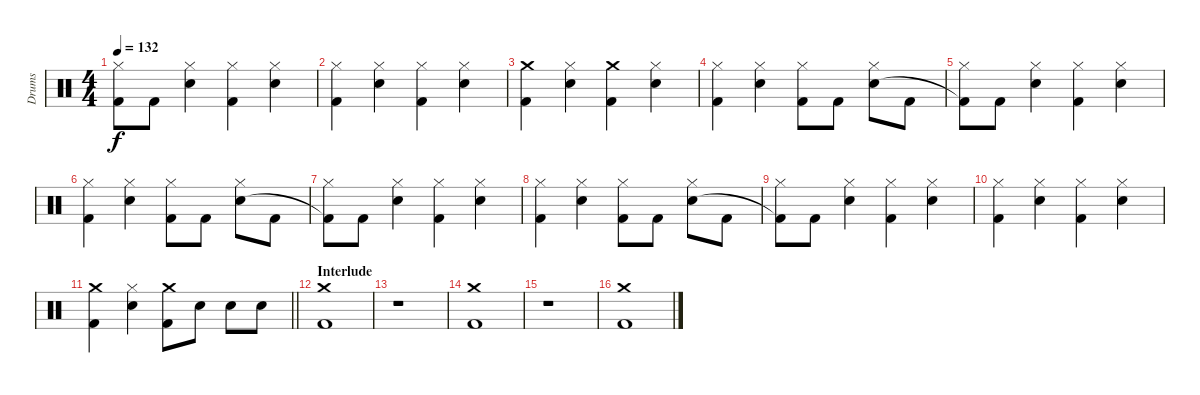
\track ("Drums" "Drums") {instrument percussion}
\staff {score}
\articulation defaults
\ts (4 4)
\tempo 132
\clef neutral
\ks c
("Hi-Hat (closed)" "Kick (hit) 2"{t}).8{dy f} "Kick (hit) 2".8 ("Hi-Hat (closed)" "Snare (hit) 2").4 ("Hi-Hat (closed)" "Kick (hit) 2").4 ("Hi-Hat (closed)" "Snare (hit) 2").4 |
("Hi-Hat (closed)" "Kick (hit) 2").4 ("Hi-Hat (closed)" "Snare (hit) 2").4 ("Hi-Hat (closed)" "Kick (hit) 2").4 ("Hi-Hat (closed)" "Snare (hit) 2").4 |
("Crash medium (hit)" "Kick (hit) 2").4 ("Hi-Hat (closed)" "Snare (hit) 2").4 ("Crash medium (hit)" "Kick (hit) 2").4 ("Hi-Hat (closed)" "Snare (hit) 2").4 |
("Hi-Hat (closed)" "Kick (hit) 2").4 ("Hi-Hat (closed)" "Snare (hit) 2").4 ("Hi-Hat (closed)" "Kick (hit) 2").8 "Kick (hit) 2".8 ("Hi-Hat (closed)" "Snare (hit) 2").8 "Kick (hit) 2".8 |
("Hi-Hat (closed)" "Kick (hit) 2"{t}).8 "Kick (hit) 2".8 ("Hi-Hat (closed)" "Snare (hit) 2").4 ("Hi-Hat (closed)" "Kick (hit) 2").4 ("Hi-Hat (closed)" "Snare (hit) 2").4 |
("Hi-Hat (closed)" "Kick (hit) 2").4 ("Hi-Hat (closed)" "Snare (hit) 2").4 ("Hi-Hat (closed)" "Kick (hit) 2").8 "Kick (hit) 2".8 ("Hi-Hat (closed)" "Snare (hit) 2").8 "Kick (hit) 2".8 |
("Hi-Hat (closed)" "Kick (hit) 2"{t}).8 "Kick (hit) 2".8 ("Hi-Hat (closed)" "Snare (hit) 2").4 ("Hi-Hat (closed)" "Kick (hit) 2").4 ("Hi-Hat (closed)" "Snare (hit) 2").4 |
("Hi-Hat (closed)" "Kick (hit) 2").4 ("Hi-Hat (closed)" "Snare (hit) 2").4 ("Hi-Hat (closed)" "Kick (hit) 2").8 "Kick (hit) 2".8 ("Hi-Hat (closed)" "Snare (hit) 2").8 "Kick (hit) 2".8 |
("Hi-Hat (closed)" "Kick (hit) 2"{t}).8 "Kick (hit) 2".8 ("Hi-Hat (closed)" "Snare (hit) 2").4 ("Hi-Hat (closed)" "Kick (hit) 2").4 ("Hi-Hat (closed)" "Snare (hit) 2").4 |
("Hi-Hat (closed)" "Kick (hit) 2").4 ("Hi-Hat (closed)" "Snare (hit) 2").4 ("Hi-Hat (closed)" "Kick (hit) 2").4 ("Hi-Hat (closed)" "Snare (hit) 2").4 |
\barLineRight lightlight
("Crash medium (hit)" "Kick (hit) 2").4 ("Hi-Hat (closed)" "Snare (hit) 2").4 ("Crash medium (hit)" "Kick (hit) 2").8 "Snare (hit) 2".8 "Snare (hit) 2".8 "Snare (hit) 2".8 |
\section ("" "Interlude")
("Crash medium (hit)" "Kick (hit) 2").1 |
r.1 |
("Crash medium (hit)" "Kick (hit) 2").1 |
r.1 |
("Crash medium (hit)" "Kick (hit) 2").1
